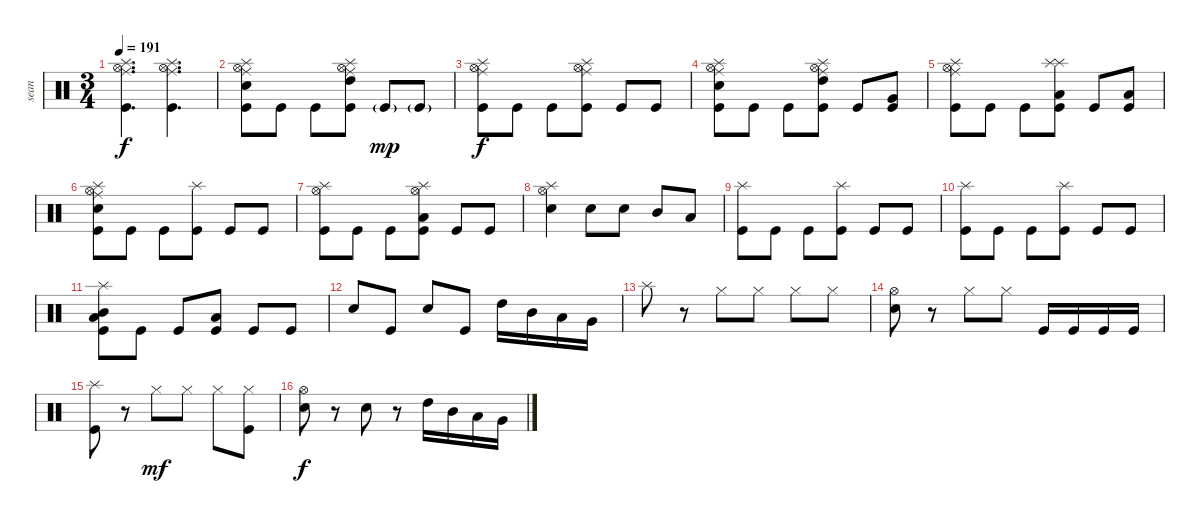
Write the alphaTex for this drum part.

\track ("sean" "sean") {instrument percussion}
\staff {score}
\articulation defaults
\ts (3 4)
\tempo 191
\clef neutral
\ks c
("Splash (hit)" "Kick (hit)" "Hi-Hat (open)" "Ride (middle)").4{d dy f} ("Splash (hit)" "Kick (hit)" "Hi-Hat (open)" "Ride (middle)").4{d} |
("Splash (hit)" "Electric Snare (hit)" "Kick (hit)" "Hi-Hat (open)" "Ride (middle)").8 "Kick (hit)".8 "Kick (hit)".8 ("Splash (hit)" "High Tom (hit)" "Kick (hit)" "Hi-Hat (open)" "Ride (middle)").8 "Kick (hit)"{g}.8{dy mp} "Kick (hit)"{g}.8 |
("Splash (hit)" "Kick (hit)" "Hi-Hat (open)" "Ride (middle)").8{dy f} "Kick (hit)".8 "Kick (hit)".8 ("Splash (hit)" "Kick (hit)" "Hi-Hat (open)" "Ride (middle)").8 "Kick (hit)".8 "Kick (hit)".8 |
("Splash (hit)" "Kick (hit)" "Hi-Hat (open)" "Ride (middle)" "Electric Snare (hit)").8 "Kick (hit)".8 "Kick (hit)".8 ("Splash (hit)" "Kick (hit)" "Hi-Hat (open)" "Ride (middle)" "High Tom (hit)").8 "Kick (hit)".8 ("Kick (hit)" "Very Low Tom (hit)").8 |
("Splash (hit)" "Kick (hit)" "Hi-Hat (open)" "Ride (middle)").8 "Kick (hit)".8 "Kick (hit)".8 ("Splash (hit)" "Kick (hit)" "Low Tom (hit)" "Splash (hit)").8 "Kick (hit)".8 ("Kick (hit)" "Low Tom (hit)").8 |
("Electric Snare (hit)" "Splash (hit)" "Kick (hit)" "Hi-Hat (open)" "Ride (middle)").8 "Kick (hit)".8 "Kick (hit)".8 ("Splash (hit)" "Kick (hit)").8 "Kick (hit)".8 "Kick (hit)".8 |
("Hi-Hat (open)" "Kick (hit)" "Splash (hit)").8 "Kick (hit)".8 "Kick (hit)".8 ("Hi-Hat (open)" "Low Floor Tom (hit)" "Kick (hit)" "Splash (hit)").8 "Kick (hit)".8 "Kick (hit)".8 |
("Hi-Hat (open)" "Electric Snare (hit)" "Splash (hit)").4 "Electric Snare (hit)".8 "Electric Snare (hit)".8 "Mid Tom (hit)".8 "Low Tom (hit)".8 |
("Splash (hit)" "Kick (hit)").8 "Kick (hit)".8 "Kick (hit)".8 ("Splash (hit)" "Kick (hit)").8 "Kick (hit)".8 "Kick (hit)".8 |
("Splash (hit)" "Kick (hit)").8 "Kick (hit)".8 "Kick (hit)".8 ("Splash (hit)" "Kick (hit)").8 "Kick (hit)".8 "Kick (hit)".8 |
("Mid Tom (hit)" "Splash (hit)" "Kick (hit)" "Low Tom (hit)").8 "Kick (hit)".8 "Kick (hit)".8 ("Low Floor Tom (hit)" "Kick (hit)").8 "Kick (hit)".8 "Kick (hit)".8 |
"Electric Snare (hit)".8 "Kick (hit)".8 "Electric Snare (hit)".8 "Kick (hit)".8 "High Tom (hit)".16 "Mid Tom (hit)".16 "Low Tom (hit)".16 "Very Low Tom (hit)".16 |
"Splash (hit)".8 r.8 "Hi-Hat (closed)".8 "Hi-Hat (closed)".8 "Hi-Hat (closed)".8 "Hi-Hat (closed)".8 |
("Hi-Hat (open)" "Electric Snare (hit)").8 r.8 "Hi-Hat (closed)".8 "Hi-Hat (closed)".8 "Kick (hit)".16 "Kick (hit)".16 "Kick (hit)".16 "Kick (hit)".16 |
("Splash (hit)" "Kick (hit)").8 r.8 "Hi-Hat (closed)".8{dy mf} "Hi-Hat (closed)".8 "Hi-Hat (closed)".8 ("Kick (hit)" "Hi-Hat (closed)").8 |
("Electric Snare (hit)" "Hi-Hat (open)").8{dy f} r.8 "Electric Snare (hit)".8 r.8 "High Tom (hit)".16 "Mid Tom (hit)".16 "Low Tom (hit)".16 "Very Low Tom (hit)".16
